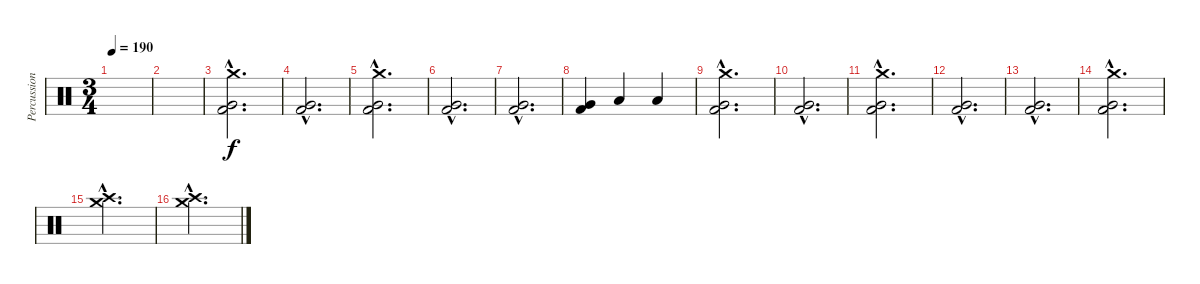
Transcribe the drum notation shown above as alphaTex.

\track ("Percussion" "Percussion") {instrument percussion}
\staff {score}
\articulation defaults
\ts (3 4)
\tempo 190
\clef neutral
\ks c
|
|
("Crash medium (hit)"{hac} "Very Low Tom (hit)"{hac} "Kick (hit) 2"{hac}).2{d} |
("Very Low Tom (hit)"{hac} "Kick (hit) 2"{hac}).2{d} |
("Crash medium (hit)"{hac} "Very Low Tom (hit)"{hac} "Kick (hit) 2"{hac}).2{d} |
("Very Low Tom (hit)"{hac} "Kick (hit) 2"{hac}).2{d} |
("Very Low Tom (hit)"{hac} "Kick (hit) 2"{hac}).2{d} |
("Very Low Tom (hit)" "Kick (hit) 2").4 "Low Floor Tom (hit)".4 "Low Floor Tom (hit)".4 |
("Crash medium (hit)"{hac} "Very Low Tom (hit)"{hac} "Kick (hit) 2"{hac}).2{d} |
("Very Low Tom (hit)"{hac} "Kick (hit) 2"{hac}).2{d} |
("Crash medium (hit)"{hac} "Very Low Tom (hit)"{hac} "Kick (hit) 2"{hac}).2{d} |
("Very Low Tom (hit)"{hac} "Kick (hit) 2"{hac}).2{d} |
("Very Low Tom (hit)"{hac} "Kick (hit) 2"{hac}).2{d} |
("Crash medium (hit)"{hac} "Very Low Tom (hit)"{hac} "Kick (hit) 2"{hac}).2{d} |
("Crash medium (hit)"{hac} "Crash high (hit)"{hac}).2{d} |
("Crash medium (hit)"{hac} "Crash high (hit)"{hac}).2{d}
